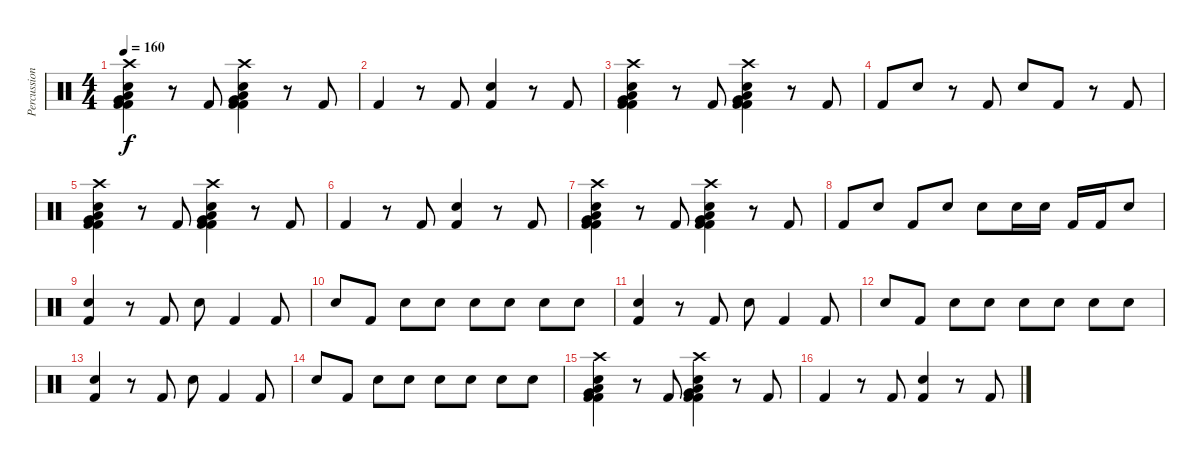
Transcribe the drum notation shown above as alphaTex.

\track ("Percussion" "Percussion") {instrument percussion}
\staff {score}
\articulation defaults
\ts (4 4)
\tempo 160
\clef neutral
\ks c
("Crash high (hit)" "Kick (hit) 2" "Kick (hit) 2" "Very Low Tom (hit)" "Low Tom (hit)" "Snare (hit) 2").4{dy f} r.8 "Kick (hit) 2".8 ("Crash high (hit)" "Kick (hit) 2" "Kick (hit) 2" "Very Low Tom (hit)" "Low Tom (hit)" "Snare (hit) 2").4 r.8 "Kick (hit) 2".8 |
"Kick (hit) 2".4 r.8 "Kick (hit) 2".8 ("Kick (hit) 2" "Snare (hit) 2").4 r.8 "Kick (hit) 2".8 |
("Crash high (hit)" "Kick (hit) 2" "Kick (hit) 2" "Very Low Tom (hit)" "Low Tom (hit)" "Snare (hit) 2").4 r.8 "Kick (hit) 2".8 ("Crash high (hit)" "Kick (hit) 2" "Kick (hit) 2" "Very Low Tom (hit)" "Low Tom (hit)" "Snare (hit) 2").4 r.8 "Kick (hit) 2".8 |
"Kick (hit) 2".8 "Snare (hit) 2".8 r.8 "Kick (hit) 2".8 "Snare (hit) 2".8 "Kick (hit) 2".8 r.8 "Kick (hit) 2".8 |
("Crash high (hit)" "Kick (hit) 2" "Kick (hit) 2" "Very Low Tom (hit)" "Low Tom (hit)" "Snare (hit) 2").4 r.8 "Kick (hit) 2".8 ("Crash high (hit)" "Kick (hit) 2" "Kick (hit) 2" "Very Low Tom (hit)" "Low Tom (hit)" "Snare (hit) 2").4 r.8 "Kick (hit) 2".8 |
"Kick (hit) 2".4 r.8 "Kick (hit) 2".8 ("Kick (hit) 2" "Snare (hit) 2").4 r.8 "Kick (hit) 2".8 |
("Crash high (hit)" "Kick (hit) 2" "Kick (hit) 2" "Very Low Tom (hit)" "Low Tom (hit)" "Snare (hit) 2").4 r.8 "Kick (hit) 2".8 ("Crash high (hit)" "Kick (hit) 2" "Kick (hit) 2" "Very Low Tom (hit)" "Low Tom (hit)" "Snare (hit) 2").4 r.8 "Kick (hit) 2".8 |
"Kick (hit) 2".8 "Snare (hit) 2".8 "Kick (hit) 2".8 "Snare (hit) 2".8 "Snare (hit) 2".8 "Snare (hit) 2".16 "Snare (hit) 2".16 "Kick (hit) 2".16 "Kick (hit) 2".16 "Snare (hit) 2".8 |
("Kick (hit) 2" "Snare (hit) 2").4 r.8 "Kick (hit) 2".8 "Snare (hit) 2".8 "Kick (hit) 2".4 "Kick (hit) 2".8 |
"Snare (hit) 2".8 "Kick (hit) 2".8 "Snare (hit) 2".8 "Snare (hit) 2".8 "Snare (hit) 2".8 "Snare (hit) 2".8 "Snare (hit) 2".8 "Snare (hit) 2".8 |
("Kick (hit) 2" "Snare (hit) 2").4 r.8 "Kick (hit) 2".8 "Snare (hit) 2".8 "Kick (hit) 2".4 "Kick (hit) 2".8 |
"Snare (hit) 2".8 "Kick (hit) 2".8 "Snare (hit) 2".8 "Snare (hit) 2".8 "Snare (hit) 2".8 "Snare (hit) 2".8 "Snare (hit) 2".8 "Snare (hit) 2".8 |
("Kick (hit) 2" "Snare (hit) 2").4 r.8 "Kick (hit) 2".8 "Snare (hit) 2".8 "Kick (hit) 2".4 "Kick (hit) 2".8 |
"Snare (hit) 2".8 "Kick (hit) 2".8 "Snare (hit) 2".8 "Snare (hit) 2".8 "Snare (hit) 2".8 "Snare (hit) 2".8 "Snare (hit) 2".8 "Snare (hit) 2".8 |
("Crash high (hit)" "Kick (hit) 2" "Kick (hit) 2" "Very Low Tom (hit)" "Low Tom (hit)" "Snare (hit) 2").4 r.8 "Kick (hit) 2".8 ("Crash high (hit)" "Kick (hit) 2" "Kick (hit) 2" "Very Low Tom (hit)" "Low Tom (hit)" "Snare (hit) 2").4 r.8 "Kick (hit) 2".8 |
"Kick (hit) 2".4 r.8 "Kick (hit) 2".8 ("Kick (hit) 2" "Snare (hit) 2").4 r.8 "Kick (hit) 2".8
